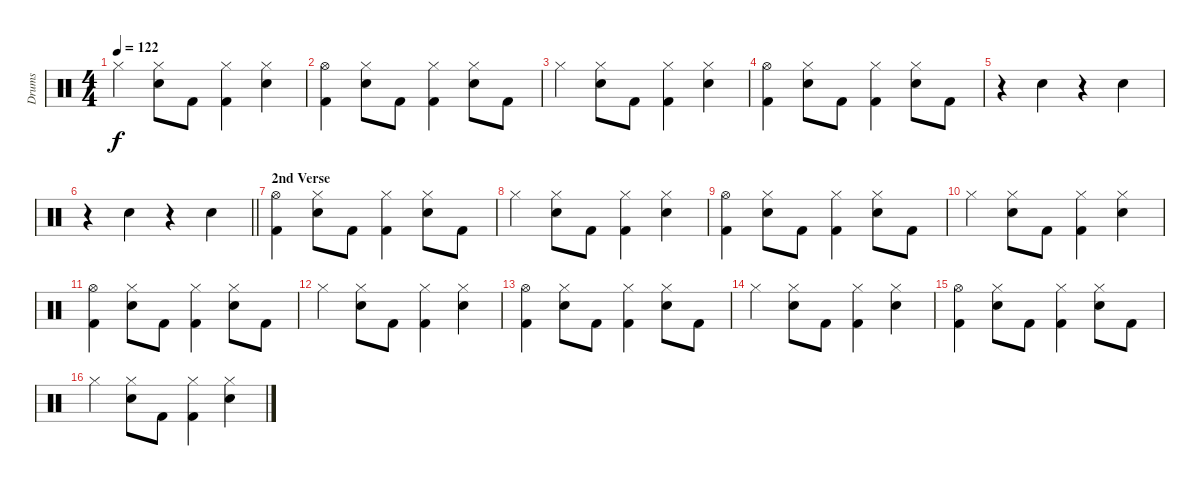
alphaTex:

\track ("Drums" "Drums") {instrument percussion}
\staff {score}
\articulation defaults
\ts (4 4)
\tempo 122
\clef neutral
\ks c "Hi-Hat (closed)".4{dy f}
("Hi-Hat (closed)" "Snare (hit) 2").8 "Kick (hit) 2".8 ("Hi-Hat (closed)" "Kick (hit) 2").4 ("Hi-Hat (closed)" "Snare (hit) 2").4 |
("Hi-Hat (open)" "Kick (hit) 2").4 ("Hi-Hat (closed)" "Snare (hit) 2").8 "Kick (hit) 2".8 ("Hi-Hat (closed)" "Kick (hit) 2").4 ("Hi-Hat (closed)" "Snare (hit) 2").8 "Kick (hit) 2".8 |
"Hi-Hat (closed)".4 ("Hi-Hat (closed)" "Snare (hit) 2").8 "Kick (hit) 2".8 ("Hi-Hat (closed)" "Kick (hit) 2").4 ("Hi-Hat (closed)" "Snare (hit) 2").4 |
("Hi-Hat (open)" "Kick (hit) 2").4 ("Hi-Hat (closed)" "Snare (hit) 2").8 "Kick (hit) 2".8 ("Hi-Hat (closed)" "Kick (hit) 2").4 ("Hi-Hat (closed)" "Snare (hit) 2").8 "Kick (hit) 2".8 |
r.4 "Hand Clap (hit)".4 r.4 "Hand Clap (hit)".4 |
\barLineRight lightlight
r.4 "Hand Clap (hit)".4 r.4 "Hand Clap (hit)".4 |
\section ("" "2nd Verse")
("Hi-Hat (open)" "Kick (hit) 2").4 ("Hi-Hat (closed)" "Snare (hit) 2").8 "Kick (hit) 2".8 ("Hi-Hat (closed)" "Kick (hit) 2").4 ("Hi-Hat (closed)" "Snare (hit) 2").8 "Kick (hit) 2".8 |
"Hi-Hat (closed)".4 ("Hi-Hat (closed)" "Snare (hit) 2").8 "Kick (hit) 2".8 ("Hi-Hat (closed)" "Kick (hit) 2").4 ("Hi-Hat (closed)" "Snare (hit) 2").4 |
("Hi-Hat (open)" "Kick (hit) 2").4 ("Hi-Hat (closed)" "Snare (hit) 2").8 "Kick (hit) 2".8 ("Hi-Hat (closed)" "Kick (hit) 2").4 ("Hi-Hat (closed)" "Snare (hit) 2").8 "Kick (hit) 2".8 |
"Hi-Hat (closed)".4 ("Hi-Hat (closed)" "Snare (hit) 2").8 "Kick (hit) 2".8 ("Hi-Hat (closed)" "Kick (hit) 2").4 ("Hi-Hat (closed)" "Snare (hit) 2").4 |
("Hi-Hat (open)" "Kick (hit) 2").4 ("Hi-Hat (closed)" "Snare (hit) 2").8 "Kick (hit) 2".8 ("Hi-Hat (closed)" "Kick (hit) 2").4 ("Hi-Hat (closed)" "Snare (hit) 2").8 "Kick (hit) 2".8 |
"Hi-Hat (closed)".4 ("Hi-Hat (closed)" "Snare (hit) 2").8 "Kick (hit) 2".8 ("Hi-Hat (closed)" "Kick (hit) 2").4 ("Hi-Hat (closed)" "Snare (hit) 2").4 |
("Hi-Hat (open)" "Kick (hit) 2").4 ("Hi-Hat (closed)" "Snare (hit) 2").8 "Kick (hit) 2".8 ("Hi-Hat (closed)" "Kick (hit) 2").4 ("Hi-Hat (closed)" "Snare (hit) 2").8 "Kick (hit) 2".8 |
"Hi-Hat (closed)".4 ("Hi-Hat (closed)" "Snare (hit) 2").8 "Kick (hit) 2".8 ("Hi-Hat (closed)" "Kick (hit) 2").4 ("Hi-Hat (closed)" "Snare (hit) 2").4 |
("Hi-Hat (open)" "Kick (hit) 2").4 ("Hi-Hat (closed)" "Snare (hit) 2").8 "Kick (hit) 2".8 ("Hi-Hat (closed)" "Kick (hit) 2").4 ("Hi-Hat (closed)" "Snare (hit) 2").8 "Kick (hit) 2".8 |
"Hi-Hat (closed)".4 ("Hi-Hat (closed)" "Snare (hit) 2").8 "Kick (hit) 2".8 ("Hi-Hat (closed)" "Kick (hit) 2").4 ("Hi-Hat (closed)" "Snare (hit) 2").4
